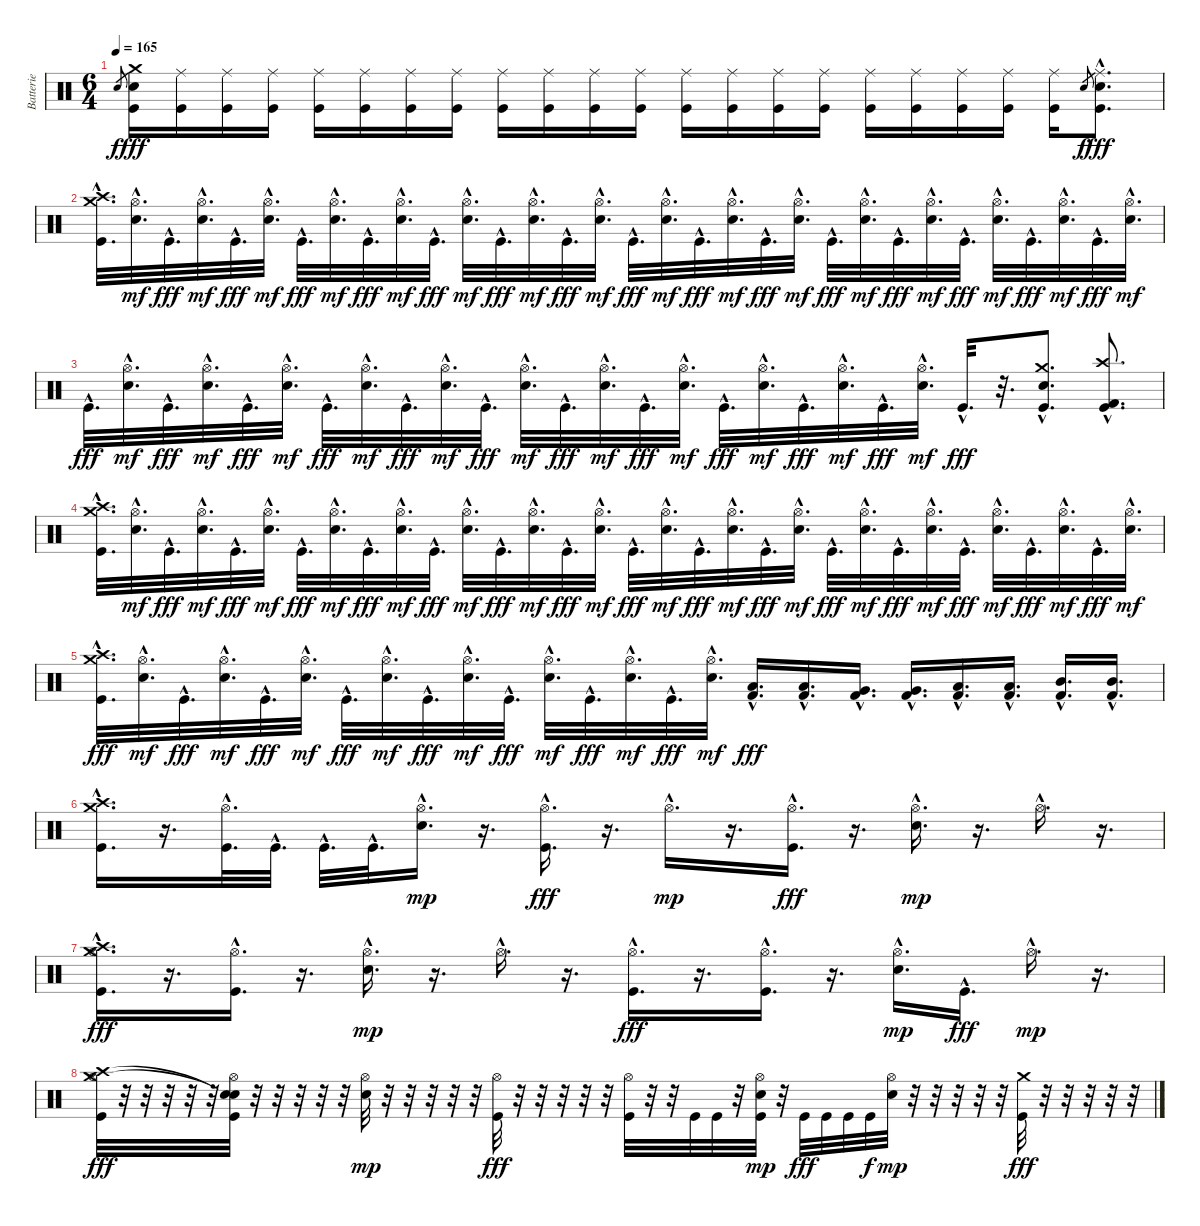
\track ("Batterie" "Batterie") {instrument percussion}
\staff {score}
\articulation defaults
\ts (6 4)
\tempo 165
\clef neutral
\ks c "Electric Snare (hit)".8{gr dy f}
("Crash medium (hit)" "Electric Snare (hit)" "Kick (hit)").16{dy fff} ("Ride (middle)" "Kick (hit)").16 ("Ride (middle)" "Kick (hit)").16 ("Ride (middle)" "Kick (hit)").16 ("Ride (middle)" "Kick (hit)").16 ("Ride (middle)" "Kick (hit)").16 ("Ride (middle)" "Kick (hit)").16 ("Ride (middle)" "Kick (hit)").16 ("Ride (middle)" "Kick (hit)").16 ("Ride (middle)" "Kick (hit)").16 ("Ride (middle)" "Kick (hit)").16 ("Ride (middle)" "Kick (hit)").16 ("Ride (middle)" "Kick (hit)").16 ("Ride (middle)" "Kick (hit)").16 ("Ride (middle)" "Kick (hit)").16 ("Ride (middle)" "Kick (hit)").16 ("Ride (middle)" "Kick (hit)").16 ("Ride (middle)" "Kick (hit)").16 ("Ride (middle)" "Kick (hit)").16 ("Ride (middle)" "Kick (hit)").16 ("Ride (middle)" "Kick (hit)").16 "Electric Snare (hit)".8{gr dy f} ("Ride (middle)"{hac} "Electric Snare (hit)"{hac} "Kick (hit)"{hac}).8{d dy fff} |
("Crash medium (hit)"{hac} "Crash high (hit)"{hac} "Kick (hit)"{hac}).32{d} ("Hi-Hat (open)"{hac} "Electric Snare (hit)"{hac}).32{d dy mf} "Kick (hit)"{hac}.32{d dy fff} ("Hi-Hat (open)"{hac} "Electric Snare (hit)"{hac}).32{d dy mf} "Kick (hit)"{hac}.32{d dy fff} ("Hi-Hat (open)"{hac} "Electric Snare (hit)"{hac}).32{d dy mf} "Kick (hit)"{hac}.32{d dy fff} ("Hi-Hat (open)"{hac} "Electric Snare (hit)"{hac}).32{d dy mf} "Kick (hit)"{hac}.32{d dy fff} ("Hi-Hat (open)"{hac} "Electric Snare (hit)"{hac}).32{d dy mf} "Kick (hit)"{hac}.32{d dy fff} ("Hi-Hat (open)"{hac} "Electric Snare (hit)"{hac}).32{d dy mf} "Kick (hit)"{hac}.32{d dy fff} ("Hi-Hat (open)"{hac} "Electric Snare (hit)"{hac}).32{d dy mf} "Kick (hit)"{hac}.32{d dy fff} ("Hi-Hat (open)"{hac} "Electric Snare (hit)"{hac}).32{d dy mf} "Kick (hit)"{hac}.32{d dy fff} ("Hi-Hat (open)"{hac} "Electric Snare (hit)"{hac}).32{d dy mf} "Kick (hit)"{hac}.32{d dy fff} ("Hi-Hat (open)"{hac} "Electric Snare (hit)"{hac}).32{d dy mf} "Kick (hit)"{hac}.32{d dy fff} ("Hi-Hat (open)"{hac} "Electric Snare (hit)"{hac}).32{d dy mf} "Kick (hit)"{hac}.32{d dy fff} ("Hi-Hat (open)"{hac} "Electric Snare (hit)"{hac}).32{d dy mf} "Kick (hit)"{hac}.32{d dy fff} ("Hi-Hat (open)"{hac} "Electric Snare (hit)"{hac}).32{d dy mf} "Kick (hit)"{hac}.32{d dy fff} ("Hi-Hat (open)"{hac} "Electric Snare (hit)"{hac}).32{d dy mf} "Kick (hit)"{hac}.32{d dy fff} ("Hi-Hat (open)"{hac} "Electric Snare (hit)"{hac}).32{d dy mf} "Kick (hit)"{hac}.32{d dy fff} ("Hi-Hat (open)"{hac} "Electric Snare (hit)"{hac}).32{d dy mf} |
"Kick (hit)"{hac}.32{d dy fff} ("Hi-Hat (open)"{hac} "Electric Snare (hit)"{hac}).32{d dy mf} "Kick (hit)"{hac}.32{d dy fff} ("Hi-Hat (open)"{hac} "Electric Snare (hit)"{hac}).32{d dy mf} "Kick (hit)"{hac}.32{d dy fff} ("Hi-Hat (open)"{hac} "Electric Snare (hit)"{hac}).32{d dy mf} "Kick (hit)"{hac}.32{d dy fff} ("Hi-Hat (open)"{hac} "Electric Snare (hit)"{hac}).32{d dy mf} "Kick (hit)"{hac}.32{d dy fff} ("Hi-Hat (open)"{hac} "Electric Snare (hit)"{hac}).32{d dy mf} "Kick (hit)"{hac}.32{d dy fff} ("Hi-Hat (open)"{hac} "Electric Snare (hit)"{hac}).32{d dy mf} "Kick (hit)"{hac}.32{d dy fff} ("Hi-Hat (open)"{hac} "Electric Snare (hit)"{hac}).32{d dy mf} "Kick (hit)"{hac}.32{d dy fff} ("Hi-Hat (open)"{hac} "Electric Snare (hit)"{hac}).32{d dy mf} "Kick (hit)"{hac}.32{d dy fff} ("Hi-Hat (open)"{hac} "Electric Snare (hit)"{hac}).32{d dy mf} "Kick (hit)"{hac}.32{d dy fff} ("Hi-Hat (open)"{hac} "Electric Snare (hit)"{hac}).32{d dy mf} "Kick (hit)"{hac}.32{d dy fff} ("Hi-Hat (open)"{hac} "Electric Snare (hit)"{hac}).32{d dy mf} "Kick (hit)"{hac}.32{d dy fff} r.32{d} ("Crash medium (hit)"{hac} "Electric Snare (hit)"{hac} "Kick (hit)"{hac}).8{d} ("Crash high (hit)"{hac} "Kick (hit) 2"{hac} "Kick (hit)"{hac}).8{d} |
("Crash medium (hit)"{hac} "Crash high (hit)"{hac} "Kick (hit)"{hac}).32{d} ("Hi-Hat (open)"{hac} "Electric Snare (hit)"{hac}).32{d dy mf} "Kick (hit)"{hac}.32{d dy fff} ("Hi-Hat (open)"{hac} "Electric Snare (hit)"{hac}).32{d dy mf} "Kick (hit)"{hac}.32{d dy fff} ("Hi-Hat (open)"{hac} "Electric Snare (hit)"{hac}).32{d dy mf} "Kick (hit)"{hac}.32{d dy fff} ("Hi-Hat (open)"{hac} "Electric Snare (hit)"{hac}).32{d dy mf} "Kick (hit)"{hac}.32{d dy fff} ("Hi-Hat (open)"{hac} "Electric Snare (hit)"{hac}).32{d dy mf} "Kick (hit)"{hac}.32{d dy fff} ("Hi-Hat (open)"{hac} "Electric Snare (hit)"{hac}).32{d dy mf} "Kick (hit)"{hac}.32{d dy fff} ("Hi-Hat (open)"{hac} "Electric Snare (hit)"{hac}).32{d dy mf} "Kick (hit)"{hac}.32{d dy fff} ("Hi-Hat (open)"{hac} "Electric Snare (hit)"{hac}).32{d dy mf} "Kick (hit)"{hac}.32{d dy fff} ("Hi-Hat (open)"{hac} "Electric Snare (hit)"{hac}).32{d dy mf} "Kick (hit)"{hac}.32{d dy fff} ("Hi-Hat (open)"{hac} "Electric Snare (hit)"{hac}).32{d dy mf} "Kick (hit)"{hac}.32{d dy fff} ("Hi-Hat (open)"{hac} "Electric Snare (hit)"{hac}).32{d dy mf} "Kick (hit)"{hac}.32{d dy fff} ("Hi-Hat (open)"{hac} "Electric Snare (hit)"{hac}).32{d dy mf} "Kick (hit)"{hac}.32{d dy fff} ("Hi-Hat (open)"{hac} "Electric Snare (hit)"{hac}).32{d dy mf} "Kick (hit)"{hac}.32{d dy fff} ("Hi-Hat (open)"{hac} "Electric Snare (hit)"{hac}).32{d dy mf} "Kick (hit)"{hac}.32{d dy fff} ("Hi-Hat (open)"{hac} "Electric Snare (hit)"{hac}).32{d dy mf} "Kick (hit)"{hac}.32{d dy fff} ("Hi-Hat (open)"{hac} "Electric Snare (hit)"{hac}).32{d dy mf} |
("Crash medium (hit)"{hac} "Crash high (hit)"{hac} "Kick (hit)"{hac}).32{d dy fff} ("Hi-Hat (open)"{hac} "Electric Snare (hit)"{hac}).32{d dy mf} "Kick (hit)"{hac}.32{d dy fff} ("Hi-Hat (open)"{hac} "Electric Snare (hit)"{hac}).32{d dy mf} "Kick (hit)"{hac}.32{d dy fff} ("Hi-Hat (open)"{hac} "Electric Snare (hit)"{hac}).32{d dy mf} "Kick (hit)"{hac}.32{d dy fff} ("Hi-Hat (open)"{hac} "Electric Snare (hit)"{hac}).32{d dy mf} "Kick (hit)"{hac}.32{d dy fff} ("Hi-Hat (open)"{hac} "Electric Snare (hit)"{hac}).32{d dy mf} "Kick (hit)"{hac}.32{d dy fff} ("Hi-Hat (open)"{hac} "Electric Snare (hit)"{hac}).32{d dy mf} "Kick (hit)"{hac}.32{d dy fff} ("Hi-Hat (open)"{hac} "Electric Snare (hit)"{hac}).32{d dy mf} "Kick (hit)"{hac}.32{d dy fff} ("Hi-Hat (open)"{hac} "Electric Snare (hit)"{hac}).32{d dy mf} ("Low Floor Tom (hit)"{hac} "Kick (hit) 2"{hac}).16{d dy fff} ("Low Floor Tom (hit)"{hac} "Kick (hit) 2"{hac}).16{d} ("Very Low Tom (hit)"{hac} "Kick (hit) 2"{hac}).16{d} ("Very Low Tom (hit)"{hac} "Kick (hit) 2"{hac}).16{d} ("Low Tom (hit)"{hac} "Kick (hit) 2"{hac}).16{d} ("Low Tom (hit)"{hac} "Kick (hit) 2"{hac}).16{d} ("Mid Tom (hit)"{hac} "Kick (hit) 2"{hac}).16{d} ("Mid Tom (hit)"{hac} "Kick (hit) 2"{hac}).16{d} |
("Crash medium (hit)"{hac} "Crash high (hit)"{hac} "Kick (hit)"{hac}).16{d} r.16{d} ("Hi-Hat (open)"{hac} "Kick (hit)"{hac}).32{d} "Kick (hit)"{hac}.32{d} "Kick (hit)"{hac}.32{d} "Kick (hit)"{hac}.32{d} ("Hi-Hat (open)"{hac} "Electric Snare (hit)"{hac}).16{d dy mp} r.16{d} ("Hi-Hat (open)"{hac} "Kick (hit)"{hac}).16{d dy fff} r.16{d} "Hi-Hat (open)"{hac}.16{d dy mp} r.16{d} ("Hi-Hat (open)"{hac} "Kick (hit)"{hac}).16{d dy fff} r.16{d} ("Hi-Hat (open)"{hac} "Electric Snare (hit)"{hac}).16{d dy mp} r.16{d} "Hi-Hat (open)"{hac}.16{d} r.16{d} |
("Hi-Hat (open)"{hac} "Crash medium (hit)"{hac} "Crash high (hit)"{hac} "Kick (hit)"{hac}).16{d dy fff} r.16{d} ("Hi-Hat (open)"{hac} "Kick (hit)"{hac}).16{d} r.16{d} ("Hi-Hat (open)"{hac} "Electric Snare (hit)"{hac}).16{d dy mp} r.16{d} "Hi-Hat (open)"{hac}.16{d} r.16{d} ("Hi-Hat (open)"{hac} "Kick (hit)"{hac}).16{d dy fff} r.16{d} ("Hi-Hat (open)"{hac} "Kick (hit)"{hac}).16{d} r.16{d} ("Hi-Hat (open)"{hac} "Electric Snare (hit)"{hac}).16{d dy mp} "Kick (hit)"{hac}.16{d dy fff} "Hi-Hat (open)"{hac}.16{d dy mp} r.16{d} |
("Hi-Hat (open)" "Crash high (hit)" "Crash medium (hit)" "Kick (hit)").32{dy fff} r.32 r.32 r.32 r.32 r.32 ("Hi-Hat (open)" "Snare (hit)"{t} "Snare (hit)"{t} "Kick (hit)").32 r.32 r.32 r.32 r.32 r.32 ("Hi-Hat (open)" "Electric Snare (hit)").32{dy mp} r.32 r.32 r.32 r.32 r.32 ("Hi-Hat (open)" "Kick (hit)").32{dy fff} r.32 r.32 r.32 r.32 r.32 ("Hi-Hat (open)" "Kick (hit)").32 r.32 r.32 "Kick (hit)".32 "Kick (hit)".32 r.32 ("Hi-Hat (open)" "Snare (hit) 2" "Kick (hit)").32{dy mp} r.32 "Kick (hit)".32{dy fff} "Kick (hit)".32 "Kick (hit)".32 "Kick (hit)".32{dy f} ("Hi-Hat (open)" "Electric Snare (hit)").32{dy mp} r.32 r.32 r.32 r.32 r.32 ("Crash medium (hit)" "Kick (hit)").32{dy fff} r.32 r.32 r.32 r.32 r.32
